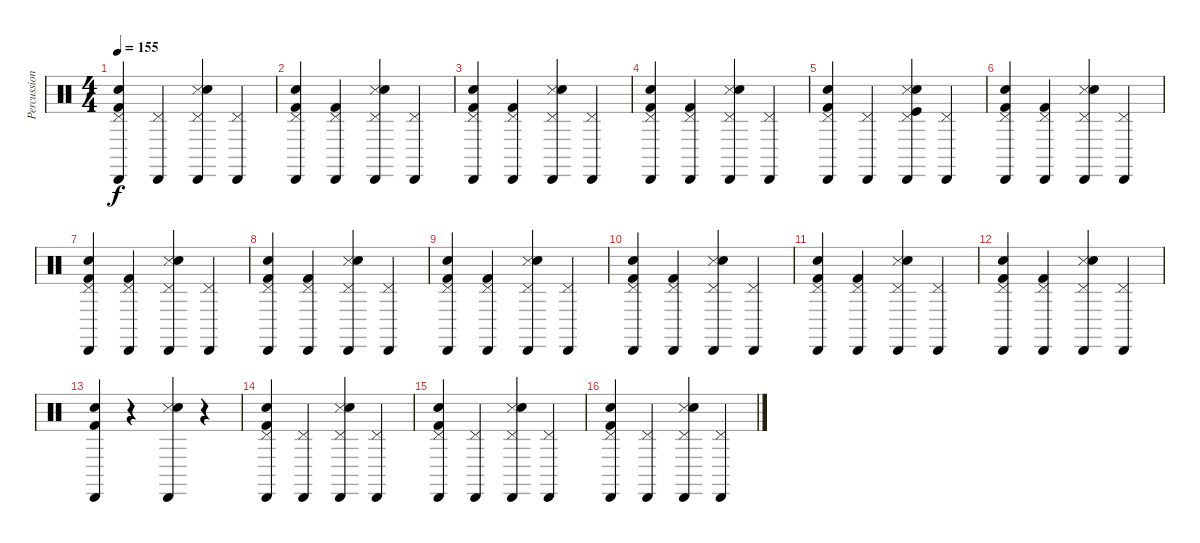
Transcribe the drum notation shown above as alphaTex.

\track ("Percussion" "Percussion") {instrument percussion}
\staff {score}
\articulation defaults
\ts (4 4)
\tempo 155
\clef neutral
\ks c
("Electric Snare (hit)" "Cabasa (hit)" "Pedal Hi-Hat (hit)" "Kick (hit) 2").4{dy f} ("Cabasa (hit)" "Pedal Hi-Hat (hit)").4 ("Snare (side stick) 3" "Snare (hit) 2" "Cabasa (hit)" "Pedal Hi-Hat (hit)").4 ("Cabasa (hit)" "Pedal Hi-Hat (hit)").4 |
("Electric Snare (hit)" "Cabasa (hit)" "Pedal Hi-Hat (hit)" "Kick (hit) 2").4 ("Cabasa (hit)" "Pedal Hi-Hat (hit)" "Kick (hit) 2").4 ("Snare (side stick) 3" "Snare (hit) 2" "Cabasa (hit)" "Pedal Hi-Hat (hit)").4 ("Cabasa (hit)" "Pedal Hi-Hat (hit)").4 |
("Electric Snare (hit)" "Cabasa (hit)" "Pedal Hi-Hat (hit)" "Kick (hit) 2").4 ("Cabasa (hit)" "Pedal Hi-Hat (hit)" "Kick (hit) 2").4 ("Snare (side stick) 3" "Snare (hit) 2" "Cabasa (hit)" "Pedal Hi-Hat (hit)").4 ("Cabasa (hit)" "Pedal Hi-Hat (hit)").4 |
("Electric Snare (hit)" "Cabasa (hit)" "Pedal Hi-Hat (hit)" "Kick (hit) 2").4 ("Cabasa (hit)" "Pedal Hi-Hat (hit)" "Kick (hit) 2").4 ("Snare (side stick) 3" "Snare (hit) 2" "Cabasa (hit)" "Pedal Hi-Hat (hit)").4 ("Cabasa (hit)" "Pedal Hi-Hat (hit)").4 |
("Electric Snare (hit)" "Cabasa (hit)" "Pedal Hi-Hat (hit)" "Kick (hit) 2").4 ("Cabasa (hit)" "Pedal Hi-Hat (hit)").4 ("Snare (side stick) 3" "Snare (hit) 2" "Cabasa (hit)" "Pedal Hi-Hat (hit)" "Kick (hit)").4 ("Cabasa (hit)" "Pedal Hi-Hat (hit)").4 |
("Electric Snare (hit)" "Cabasa (hit)" "Pedal Hi-Hat (hit)" "Kick (hit) 2").4 ("Cabasa (hit)" "Pedal Hi-Hat (hit)" "Kick (hit) 2").4 ("Snare (side stick) 3" "Snare (hit) 2" "Cabasa (hit)" "Pedal Hi-Hat (hit)").4 ("Cabasa (hit)" "Pedal Hi-Hat (hit)").4 |
("Electric Snare (hit)" "Cabasa (hit)" "Pedal Hi-Hat (hit)" "Kick (hit) 2").4 ("Cabasa (hit)" "Pedal Hi-Hat (hit)" "Kick (hit) 2").4 ("Snare (side stick) 3" "Snare (hit) 2" "Cabasa (hit)" "Pedal Hi-Hat (hit)").4 ("Cabasa (hit)" "Pedal Hi-Hat (hit)").4 |
("Electric Snare (hit)" "Cabasa (hit)" "Pedal Hi-Hat (hit)" "Kick (hit) 2").4 ("Cabasa (hit)" "Pedal Hi-Hat (hit)" "Kick (hit) 2").4 ("Snare (side stick) 3" "Snare (hit) 2" "Cabasa (hit)" "Pedal Hi-Hat (hit)").4 ("Cabasa (hit)" "Pedal Hi-Hat (hit)").4 |
("Electric Snare (hit)" "Cabasa (hit)" "Pedal Hi-Hat (hit)" "Kick (hit) 2").4 ("Cabasa (hit)" "Pedal Hi-Hat (hit)" "Kick (hit) 2").4 ("Snare (side stick) 3" "Snare (hit) 2" "Cabasa (hit)" "Pedal Hi-Hat (hit)").4 ("Cabasa (hit)" "Pedal Hi-Hat (hit)").4 |
("Electric Snare (hit)" "Cabasa (hit)" "Pedal Hi-Hat (hit)" "Kick (hit) 2").4 ("Cabasa (hit)" "Pedal Hi-Hat (hit)" "Kick (hit) 2").4 ("Snare (side stick) 3" "Snare (hit) 2" "Cabasa (hit)" "Pedal Hi-Hat (hit)").4 ("Cabasa (hit)" "Pedal Hi-Hat (hit)").4 |
("Electric Snare (hit)" "Cabasa (hit)" "Pedal Hi-Hat (hit)" "Kick (hit) 2").4 ("Cabasa (hit)" "Pedal Hi-Hat (hit)" "Kick (hit) 2").4 ("Snare (side stick) 3" "Snare (hit) 2" "Cabasa (hit)" "Pedal Hi-Hat (hit)").4 ("Cabasa (hit)" "Pedal Hi-Hat (hit)").4 |
("Electric Snare (hit)" "Cabasa (hit)" "Pedal Hi-Hat (hit)" "Kick (hit) 2").4 ("Cabasa (hit)" "Pedal Hi-Hat (hit)" "Kick (hit) 2").4 ("Snare (side stick) 3" "Snare (hit) 2" "Cabasa (hit)" "Pedal Hi-Hat (hit)").4 ("Cabasa (hit)" "Pedal Hi-Hat (hit)").4 |
("Electric Snare (hit)" "Cabasa (hit)" "Kick (hit) 2").4 r.4 ("Snare (side stick) 3" "Snare (hit) 2" "Cabasa (hit)").4 r.4 |
("Electric Snare (hit)" "Cabasa (hit)" "Pedal Hi-Hat (hit)" "Kick (hit) 2").4 ("Cabasa (hit)" "Pedal Hi-Hat (hit)").4 ("Snare (side stick) 3" "Snare (hit) 2" "Cabasa (hit)" "Pedal Hi-Hat (hit)").4 ("Cabasa (hit)" "Pedal Hi-Hat (hit)").4 |
("Electric Snare (hit)" "Cabasa (hit)" "Pedal Hi-Hat (hit)" "Kick (hit) 2").4 ("Cabasa (hit)" "Pedal Hi-Hat (hit)").4 ("Snare (side stick) 3" "Snare (hit) 2" "Cabasa (hit)" "Pedal Hi-Hat (hit)").4 ("Cabasa (hit)" "Pedal Hi-Hat (hit)").4 |
("Electric Snare (hit)" "Cabasa (hit)" "Pedal Hi-Hat (hit)" "Kick (hit) 2").4 ("Cabasa (hit)" "Pedal Hi-Hat (hit)").4 ("Snare (side stick) 3" "Snare (hit) 2" "Cabasa (hit)" "Pedal Hi-Hat (hit)").4 ("Cabasa (hit)" "Pedal Hi-Hat (hit)").4
